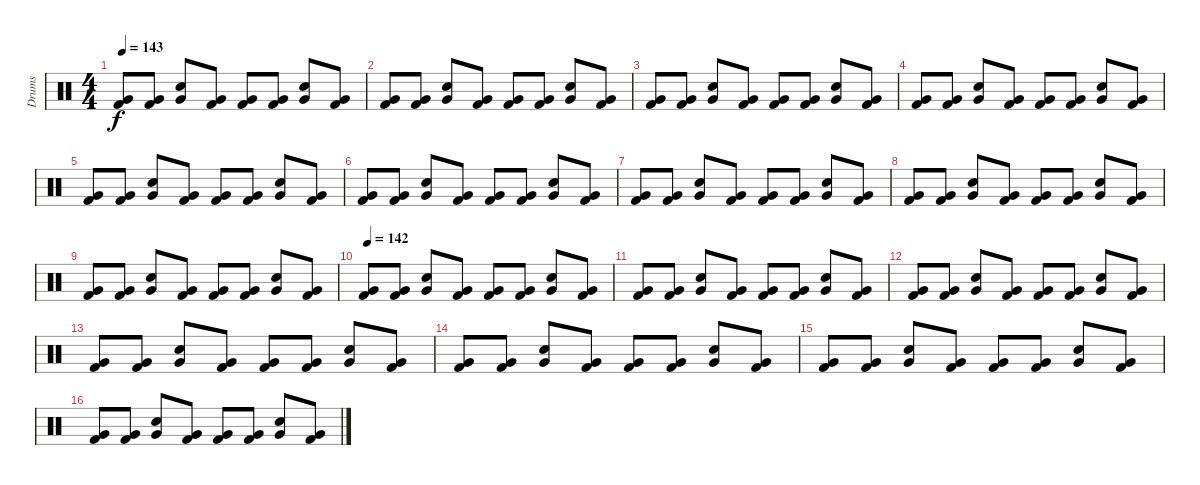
\track ("Drums" "Drums") {instrument percussion}
\staff {score}
\articulation defaults
\ts (4 4)
\tempo 143
\clef neutral
\ks c
("Very Low Tom (hit)" "Kick (hit) 2").8{dy f} ("Very Low Tom (hit)" "Kick (hit) 2").8 ("Very Low Tom (hit)" "Snare (hit) 2").8 ("Very Low Tom (hit)" "Kick (hit) 2").8 ("Very Low Tom (hit)" "Kick (hit) 2").8 ("Very Low Tom (hit)" "Kick (hit) 2").8 ("Very Low Tom (hit)" "Snare (hit) 2").8 ("Very Low Tom (hit)" "Kick (hit) 2").8 |
("Very Low Tom (hit)" "Kick (hit) 2").8 ("Very Low Tom (hit)" "Kick (hit) 2").8 ("Very Low Tom (hit)" "Snare (hit) 2").8 ("Very Low Tom (hit)" "Kick (hit) 2").8 ("Very Low Tom (hit)" "Kick (hit) 2").8 ("Very Low Tom (hit)" "Kick (hit) 2").8 ("Very Low Tom (hit)" "Snare (hit) 2").8 ("Very Low Tom (hit)" "Kick (hit) 2").8 |
("Very Low Tom (hit)" "Kick (hit) 2").8 ("Very Low Tom (hit)" "Kick (hit) 2").8 ("Very Low Tom (hit)" "Snare (hit) 2").8 ("Very Low Tom (hit)" "Kick (hit) 2").8 ("Very Low Tom (hit)" "Kick (hit) 2").8 ("Very Low Tom (hit)" "Kick (hit) 2").8 ("Very Low Tom (hit)" "Snare (hit) 2").8 ("Very Low Tom (hit)" "Kick (hit) 2").8 |
("Very Low Tom (hit)" "Kick (hit) 2").8 ("Very Low Tom (hit)" "Kick (hit) 2").8 ("Very Low Tom (hit)" "Snare (hit) 2").8 ("Very Low Tom (hit)" "Kick (hit) 2").8 ("Very Low Tom (hit)" "Kick (hit) 2").8 ("Very Low Tom (hit)" "Kick (hit) 2").8 ("Very Low Tom (hit)" "Snare (hit) 2").8 ("Very Low Tom (hit)" "Kick (hit) 2").8 |
("Very Low Tom (hit)" "Kick (hit) 2").8 ("Very Low Tom (hit)" "Kick (hit) 2").8 ("Very Low Tom (hit)" "Snare (hit) 2").8 ("Very Low Tom (hit)" "Kick (hit) 2").8 ("Very Low Tom (hit)" "Kick (hit) 2").8 ("Very Low Tom (hit)" "Kick (hit) 2").8 ("Very Low Tom (hit)" "Snare (hit) 2").8 ("Very Low Tom (hit)" "Kick (hit) 2").8 |
("Very Low Tom (hit)" "Kick (hit) 2").8 ("Very Low Tom (hit)" "Kick (hit) 2").8 ("Very Low Tom (hit)" "Snare (hit) 2").8 ("Very Low Tom (hit)" "Kick (hit) 2").8 ("Very Low Tom (hit)" "Kick (hit) 2").8 ("Very Low Tom (hit)" "Kick (hit) 2").8 ("Very Low Tom (hit)" "Snare (hit) 2").8 ("Very Low Tom (hit)" "Kick (hit) 2").8 |
("Very Low Tom (hit)" "Kick (hit) 2").8 ("Very Low Tom (hit)" "Kick (hit) 2").8 ("Very Low Tom (hit)" "Snare (hit) 2").8 ("Very Low Tom (hit)" "Kick (hit) 2").8 ("Very Low Tom (hit)" "Kick (hit) 2").8 ("Very Low Tom (hit)" "Kick (hit) 2").8 ("Very Low Tom (hit)" "Snare (hit) 2").8 ("Very Low Tom (hit)" "Kick (hit) 2").8 |
("Very Low Tom (hit)" "Kick (hit) 2").8 ("Very Low Tom (hit)" "Kick (hit) 2").8 ("Very Low Tom (hit)" "Snare (hit) 2").8 ("Very Low Tom (hit)" "Kick (hit) 2").8 ("Very Low Tom (hit)" "Kick (hit) 2").8 ("Very Low Tom (hit)" "Kick (hit) 2").8 ("Very Low Tom (hit)" "Snare (hit) 2").8 ("Very Low Tom (hit)" "Kick (hit) 2").8 |
("Very Low Tom (hit)" "Kick (hit) 2").8 ("Very Low Tom (hit)" "Kick (hit) 2").8 ("Very Low Tom (hit)" "Snare (hit) 2").8 ("Very Low Tom (hit)" "Kick (hit) 2").8 ("Very Low Tom (hit)" "Kick (hit) 2").8 ("Very Low Tom (hit)" "Kick (hit) 2").8 ("Very Low Tom (hit)" "Snare (hit) 2").8 ("Very Low Tom (hit)" "Kick (hit) 2").8 |
\tempo 142
("Very Low Tom (hit)" "Kick (hit) 2").8 ("Very Low Tom (hit)" "Kick (hit) 2").8 ("Very Low Tom (hit)" "Snare (hit) 2").8 ("Very Low Tom (hit)" "Kick (hit) 2").8 ("Very Low Tom (hit)" "Kick (hit) 2").8 ("Very Low Tom (hit)" "Kick (hit) 2").8 ("Very Low Tom (hit)" "Snare (hit) 2").8 ("Very Low Tom (hit)" "Kick (hit) 2").8 |
("Very Low Tom (hit)" "Kick (hit) 2").8 ("Very Low Tom (hit)" "Kick (hit) 2").8 ("Very Low Tom (hit)" "Snare (hit) 2").8 ("Very Low Tom (hit)" "Kick (hit) 2").8 ("Very Low Tom (hit)" "Kick (hit) 2").8 ("Very Low Tom (hit)" "Kick (hit) 2").8 ("Very Low Tom (hit)" "Snare (hit) 2").8 ("Very Low Tom (hit)" "Kick (hit) 2").8 |
("Very Low Tom (hit)" "Kick (hit) 2").8 ("Very Low Tom (hit)" "Kick (hit) 2").8 ("Very Low Tom (hit)" "Snare (hit) 2").8 ("Very Low Tom (hit)" "Kick (hit) 2").8 ("Very Low Tom (hit)" "Kick (hit) 2").8 ("Very Low Tom (hit)" "Kick (hit) 2").8 ("Very Low Tom (hit)" "Snare (hit) 2").8 ("Very Low Tom (hit)" "Kick (hit) 2").8 |
("Very Low Tom (hit)" "Kick (hit) 2").8 ("Very Low Tom (hit)" "Kick (hit) 2").8 ("Very Low Tom (hit)" "Snare (hit) 2").8 ("Very Low Tom (hit)" "Kick (hit) 2").8 ("Very Low Tom (hit)" "Kick (hit) 2").8 ("Very Low Tom (hit)" "Kick (hit) 2").8 ("Very Low Tom (hit)" "Snare (hit) 2").8 ("Very Low Tom (hit)" "Kick (hit) 2").8 |
("Very Low Tom (hit)" "Kick (hit) 2").8 ("Very Low Tom (hit)" "Kick (hit) 2").8 ("Very Low Tom (hit)" "Snare (hit) 2").8 ("Very Low Tom (hit)" "Kick (hit) 2").8 ("Very Low Tom (hit)" "Kick (hit) 2").8 ("Very Low Tom (hit)" "Kick (hit) 2").8 ("Very Low Tom (hit)" "Snare (hit) 2").8 ("Very Low Tom (hit)" "Kick (hit) 2").8 |
("Very Low Tom (hit)" "Kick (hit) 2").8 ("Very Low Tom (hit)" "Kick (hit) 2").8 ("Very Low Tom (hit)" "Snare (hit) 2").8 ("Very Low Tom (hit)" "Kick (hit) 2").8 ("Very Low Tom (hit)" "Kick (hit) 2").8 ("Very Low Tom (hit)" "Kick (hit) 2").8 ("Very Low Tom (hit)" "Snare (hit) 2").8 ("Very Low Tom (hit)" "Kick (hit) 2").8 |
("Very Low Tom (hit)" "Kick (hit) 2").8 ("Very Low Tom (hit)" "Kick (hit) 2").8 ("Very Low Tom (hit)" "Snare (hit) 2").8 ("Very Low Tom (hit)" "Kick (hit) 2").8 ("Very Low Tom (hit)" "Kick (hit) 2").8 ("Very Low Tom (hit)" "Kick (hit) 2").8 ("Very Low Tom (hit)" "Snare (hit) 2").8 ("Very Low Tom (hit)" "Kick (hit) 2").8
